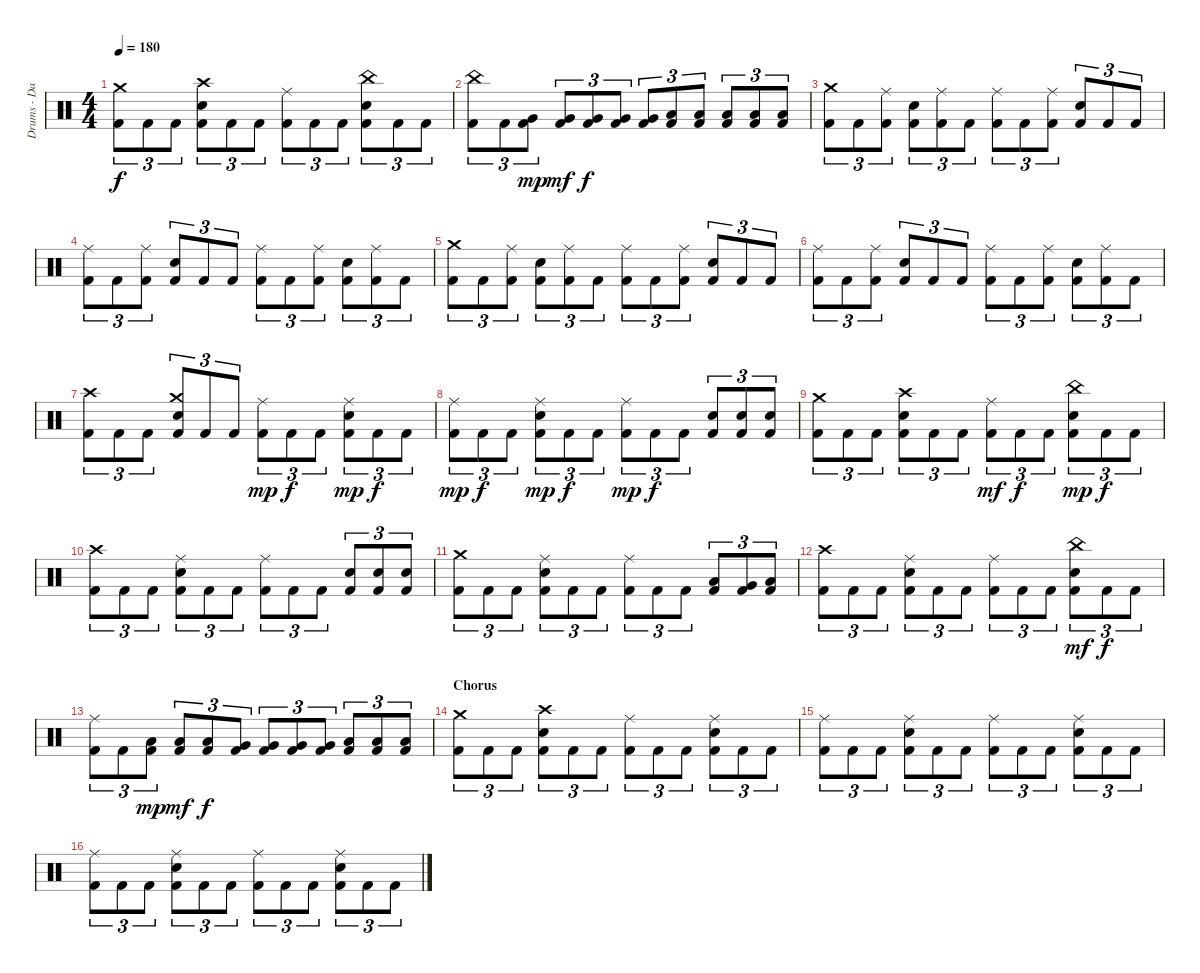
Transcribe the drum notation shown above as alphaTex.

\track ("Drums - Dan Zimmermann" "Drums - Da") {instrument percussion}
\staff {score}
\articulation defaults
\ts (4 4)
\tempo 180
\clef neutral
\ks c
("Kick (hit) 2" "Crash medium (hit)").8{tu (3 2) dy f} "Kick (hit) 2".8{tu (3 2)} "Kick (hit) 2".8{tu (3 2)} ("Kick (hit) 2" "Electric Snare (hit)" "Crash high (hit)").8{tu (3 2)} "Kick (hit) 2".8{tu (3 2)} "Kick (hit) 2".8{tu (3 2)} ("Kick (hit) 2" "Ride (middle)").8{tu (3 2)} "Kick (hit) 2".8{tu (3 2)} "Kick (hit) 2".8{tu (3 2)} ("Kick (hit) 2" "Electric Snare (hit)" "China (hit)").8{tu (3 2)} "Kick (hit) 2".8{tu (3 2)} "Kick (hit) 2".8{tu (3 2)} |
("Kick (hit) 2" "China (hit)").8{tu (3 2)} "Kick (hit) 2".8{tu (3 2)} ("Kick (hit) 2" "Very Low Tom (hit)").8{tu (3 2) dy mp} ("Kick (hit) 2" "Very Low Tom (hit)").8{tu (3 2) dy mf} ("Kick (hit) 2" "Very Low Tom (hit)").8{tu (3 2) dy f} ("Kick (hit) 2" "Very Low Tom (hit)").8{tu (3 2)} ("Kick (hit) 2" "Very Low Tom (hit)").8{tu (3 2)} ("Kick (hit) 2" "Low Floor Tom (hit)").8{tu (3 2)} ("Kick (hit) 2" "Low Floor Tom (hit)").8{tu (3 2)} ("Kick (hit) 2" "Low Floor Tom (hit)").8{tu (3 2)} ("Kick (hit) 2" "Low Floor Tom (hit)").8{tu (3 2)} ("Kick (hit) 2" "Low Floor Tom (hit)").8{tu (3 2)} |
("Kick (hit) 2" "Crash medium (hit)").8{tu (3 2)} "Kick (hit) 2".8{tu (3 2)} ("Kick (hit) 2" "Ride (middle)").8{tu (3 2)} ("Kick (hit) 2" "Electric Snare (hit)").8{tu (3 2)} ("Kick (hit) 2" "Ride (middle)").8{tu (3 2)} "Kick (hit) 2".8{tu (3 2)} ("Kick (hit) 2" "Ride (middle)").8{tu (3 2)} "Kick (hit) 2".8{tu (3 2)} ("Kick (hit) 2" "Ride (middle)").8{tu (3 2)} ("Kick (hit) 2" "Electric Snare (hit)").8{tu (3 2)} "Kick (hit) 2".8{tu (3 2)} "Kick (hit) 2".8{tu (3 2)} |
("Kick (hit) 2" "Ride (middle)").8{tu (3 2)} "Kick (hit) 2".8{tu (3 2)} ("Kick (hit) 2" "Ride (middle)").8{tu (3 2)} ("Kick (hit) 2" "Electric Snare (hit)").8{tu (3 2)} "Kick (hit) 2".8{tu (3 2)} "Kick (hit) 2".8{tu (3 2)} ("Kick (hit) 2" "Ride (middle)").8{tu (3 2)} "Kick (hit) 2".8{tu (3 2)} ("Kick (hit) 2" "Ride (middle)").8{tu (3 2)} ("Kick (hit) 2" "Electric Snare (hit)").8{tu (3 2)} ("Kick (hit) 2" "Ride (middle)").8{tu (3 2)} "Kick (hit) 2".8{tu (3 2)} |
("Kick (hit) 2" "Crash medium (hit)").8{tu (3 2)} "Kick (hit) 2".8{tu (3 2)} ("Kick (hit) 2" "Ride (middle)").8{tu (3 2)} ("Kick (hit) 2" "Electric Snare (hit)").8{tu (3 2)} ("Kick (hit) 2" "Ride (middle)").8{tu (3 2)} "Kick (hit) 2".8{tu (3 2)} ("Kick (hit) 2" "Ride (middle)").8{tu (3 2)} "Kick (hit) 2".8{tu (3 2)} ("Kick (hit) 2" "Ride (middle)").8{tu (3 2)} ("Kick (hit) 2" "Electric Snare (hit)").8{tu (3 2)} "Kick (hit) 2".8{tu (3 2)} "Kick (hit) 2".8{tu (3 2)} |
("Kick (hit) 2" "Ride (middle)").8{tu (3 2)} "Kick (hit) 2".8{tu (3 2)} ("Kick (hit) 2" "Ride (middle)").8{tu (3 2)} ("Kick (hit) 2" "Electric Snare (hit)").8{tu (3 2)} "Kick (hit) 2".8{tu (3 2)} "Kick (hit) 2".8{tu (3 2)} ("Kick (hit) 2" "Ride (middle)").8{tu (3 2)} "Kick (hit) 2".8{tu (3 2)} ("Kick (hit) 2" "Ride (middle)").8{tu (3 2)} ("Kick (hit) 2" "Electric Snare (hit)").8{tu (3 2)} ("Kick (hit) 2" "Ride (middle)").8{tu (3 2)} "Kick (hit) 2".8{tu (3 2)} |
("Kick (hit) 2" "Crash high (hit)").8{tu (3 2)} "Kick (hit) 2".8{tu (3 2)} "Kick (hit) 2".8{tu (3 2)} ("Kick (hit) 2" "Electric Snare (hit)" "Crash medium (hit)").8{tu (3 2)} "Kick (hit) 2".8{tu (3 2)} "Kick (hit) 2".8{tu (3 2)} ("Kick (hit) 2" "Ride (middle)").8{tu (3 2) dy mp} "Kick (hit) 2".8{tu (3 2) dy f} "Kick (hit) 2".8{tu (3 2)} ("Kick (hit) 2" "Electric Snare (hit)" "Ride (middle)").8{tu (3 2) dy mp} "Kick (hit) 2".8{tu (3 2) dy f} "Kick (hit) 2".8{tu (3 2)} |
("Kick (hit) 2" "Ride (middle)").8{tu (3 2) dy mp} "Kick (hit) 2".8{tu (3 2) dy f} "Kick (hit) 2".8{tu (3 2)} ("Kick (hit) 2" "Electric Snare (hit)" "Ride (middle)").8{tu (3 2) dy mp} "Kick (hit) 2".8{tu (3 2) dy f} "Kick (hit) 2".8{tu (3 2)} ("Kick (hit) 2" "Ride (middle)").8{tu (3 2) dy mp} "Kick (hit) 2".8{tu (3 2) dy f} "Kick (hit) 2".8{tu (3 2)} ("Kick (hit) 2" "Electric Snare (hit)").8{tu (3 2)} ("Kick (hit) 2" "Electric Snare (hit)").8{tu (3 2)} ("Kick (hit) 2" "Electric Snare (hit)").8{tu (3 2)} |
("Kick (hit) 2" "Crash medium (hit)").8{tu (3 2)} "Kick (hit) 2".8{tu (3 2)} "Kick (hit) 2".8{tu (3 2)} ("Kick (hit) 2" "Electric Snare (hit)" "Crash high (hit)").8{tu (3 2)} "Kick (hit) 2".8{tu (3 2)} "Kick (hit) 2".8{tu (3 2)} ("Kick (hit) 2" "Ride (middle)").8{tu (3 2) dy mf} "Kick (hit) 2".8{tu (3 2) dy f} "Kick (hit) 2".8{tu (3 2)} ("Kick (hit) 2" "Electric Snare (hit)" "China (hit)").8{tu (3 2) dy mp} "Kick (hit) 2".8{tu (3 2) dy f} "Kick (hit) 2".8{tu (3 2)} |
("Kick (hit) 2" "Crash high (hit)").8{tu (3 2)} "Kick (hit) 2".8{tu (3 2)} "Kick (hit) 2".8{tu (3 2)} ("Kick (hit) 2" "Electric Snare (hit)" "Ride (middle)").8{tu (3 2)} "Kick (hit) 2".8{tu (3 2)} "Kick (hit) 2".8{tu (3 2)} ("Kick (hit) 2" "Ride (middle)").8{tu (3 2)} "Kick (hit) 2".8{tu (3 2)} "Kick (hit) 2".8{tu (3 2)} ("Kick (hit) 2" "Electric Snare (hit)").8{tu (3 2)} ("Kick (hit) 2" "Electric Snare (hit)").8{tu (3 2)} ("Kick (hit) 2" "Electric Snare (hit)").8{tu (3 2)} |
("Kick (hit) 2" "Crash medium (hit)").8{tu (3 2)} "Kick (hit) 2".8{tu (3 2)} "Kick (hit) 2".8{tu (3 2)} ("Kick (hit) 2" "Electric Snare (hit)" "Ride (middle)").8{tu (3 2)} "Kick (hit) 2".8{tu (3 2)} "Kick (hit) 2".8{tu (3 2)} ("Kick (hit) 2" "Ride (middle)").8{tu (3 2)} "Kick (hit) 2".8{tu (3 2)} "Kick (hit) 2".8{tu (3 2)} ("Kick (hit) 2" "Low Tom (hit)").8{tu (3 2)} ("Kick (hit) 2" "Very Low Tom (hit)").8{tu (3 2)} ("Kick (hit) 2" "Low Floor Tom (hit)").8{tu (3 2)} |
("Kick (hit) 2" "Crash high (hit)").8{tu (3 2)} "Kick (hit) 2".8{tu (3 2)} "Kick (hit) 2".8{tu (3 2)} ("Kick (hit) 2" "Electric Snare (hit)" "Ride (middle)").8{tu (3 2)} "Kick (hit) 2".8{tu (3 2)} "Kick (hit) 2".8{tu (3 2)} ("Kick (hit) 2" "Ride (middle)").8{tu (3 2)} "Kick (hit) 2".8{tu (3 2)} "Kick (hit) 2".8{tu (3 2)} ("Kick (hit) 2" "Electric Snare (hit)" "China (hit)").8{tu (3 2) dy mf} "Kick (hit) 2".8{tu (3 2) dy f} "Kick (hit) 2".8{tu (3 2)} |
("Kick (hit) 2" "Ride (middle)").8{tu (3 2)} "Kick (hit) 2".8{tu (3 2)} ("Kick (hit) 2" "Low Tom (hit)").8{tu (3 2) dy mp} ("Kick (hit) 2" "Low Tom (hit)").8{tu (3 2) dy mf} ("Kick (hit) 2" "Low Tom (hit)").8{tu (3 2) dy f} ("Kick (hit) 2" "Very Low Tom (hit)").8{tu (3 2)} ("Kick (hit) 2" "Very Low Tom (hit)").8{tu (3 2)} ("Kick (hit) 2" "Very Low Tom (hit)").8{tu (3 2)} ("Kick (hit) 2" "Very Low Tom (hit)").8{tu (3 2)} ("Kick (hit) 2" "Low Floor Tom (hit)").8{tu (3 2)} ("Kick (hit) 2" "Low Floor Tom (hit)").8{tu (3 2)} ("Kick (hit) 2" "Low Floor Tom (hit)").8{tu (3 2)} |
\section ("" "Chorus")
("Kick (hit) 2" "Crash medium (hit)").8{tu (3 2)} "Kick (hit) 2".8{tu (3 2)} "Kick (hit) 2".8{tu (3 2)} ("Kick (hit) 2" "Electric Snare (hit)" "Crash high (hit)").8{tu (3 2)} "Kick (hit) 2".8{tu (3 2)} "Kick (hit) 2".8{tu (3 2)} ("Kick (hit) 2" "Ride (middle)").8{tu (3 2)} "Kick (hit) 2".8{tu (3 2)} "Kick (hit) 2".8{tu (3 2)} ("Kick (hit) 2" "Electric Snare (hit)" "Ride (middle)").8{tu (3 2)} "Kick (hit) 2".8{tu (3 2)} "Kick (hit) 2".8{tu (3 2)} |
("Kick (hit) 2" "Ride (middle)").8{tu (3 2)} "Kick (hit) 2".8{tu (3 2)} "Kick (hit) 2".8{tu (3 2)} ("Kick (hit) 2" "Electric Snare (hit)" "Ride (middle)").8{tu (3 2)} "Kick (hit) 2".8{tu (3 2)} "Kick (hit) 2".8{tu (3 2)} ("Kick (hit) 2" "Ride (middle)").8{tu (3 2)} "Kick (hit) 2".8{tu (3 2)} "Kick (hit) 2".8{tu (3 2)} ("Kick (hit) 2" "Electric Snare (hit)" "Ride (middle)").8{tu (3 2)} "Kick (hit) 2".8{tu (3 2)} "Kick (hit) 2".8{tu (3 2)} |
("Kick (hit) 2" "Ride (middle)").8{tu (3 2)} "Kick (hit) 2".8{tu (3 2)} "Kick (hit) 2".8{tu (3 2)} ("Kick (hit) 2" "Electric Snare (hit)" "Ride (middle)").8{tu (3 2)} "Kick (hit) 2".8{tu (3 2)} "Kick (hit) 2".8{tu (3 2)} ("Kick (hit) 2" "Ride (middle)").8{tu (3 2)} "Kick (hit) 2".8{tu (3 2)} "Kick (hit) 2".8{tu (3 2)} ("Kick (hit) 2" "Electric Snare (hit)" "Ride (middle)").8{tu (3 2)} "Kick (hit) 2".8{tu (3 2)} "Kick (hit) 2".8{tu (3 2)}
